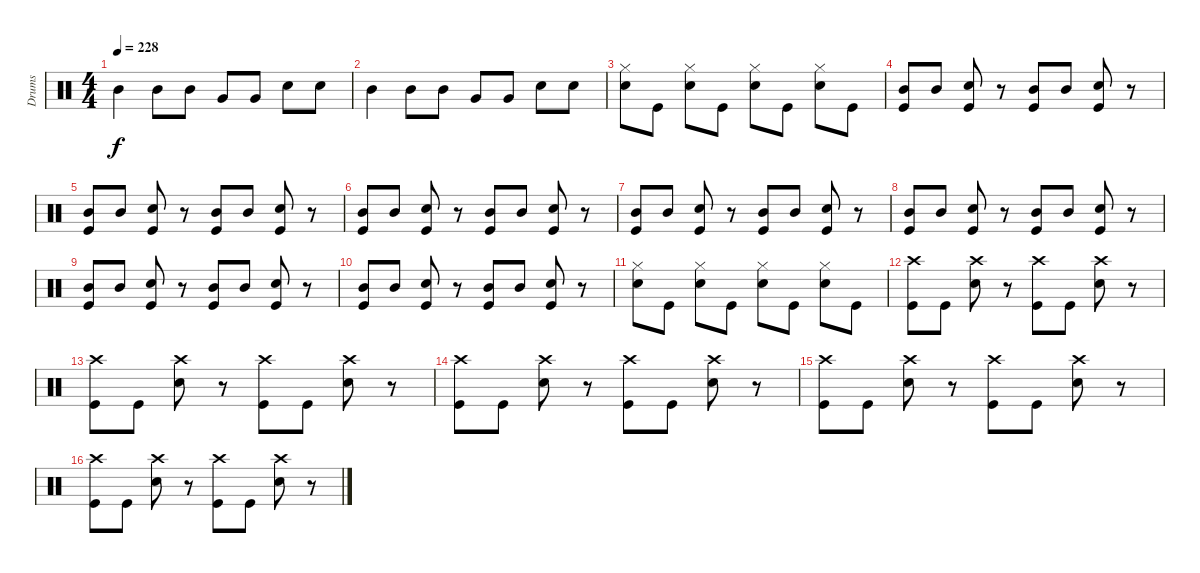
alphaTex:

\track ("Drums" "Drums") {instrument percussion}
\staff {score}
\articulation defaults
\ts (4 4)
\tempo 228
\clef neutral
\ks c "Mid Tom (hit)".4{dy f} "Mid Tom (hit)".8 "Mid Tom (hit)".8 "Very Low Tom (hit)".8 "Very Low Tom (hit)".8 "Electric Snare (hit)".8 "Electric Snare (hit)".8
|
"Mid Tom (hit)".4 "Mid Tom (hit)".8 "Mid Tom (hit)".8 "Very Low Tom (hit)".8 "Very Low Tom (hit)".8 "Electric Snare (hit)".8 "Electric Snare (hit)".8 |
("Hi-Hat (closed)" "Electric Snare (hit)").8 "Kick (hit)".8 ("Hi-Hat (closed)" "Electric Snare (hit)").8 "Kick (hit)".8 ("Hi-Hat (closed)" "Electric Snare (hit)").8 "Kick (hit)".8 ("Hi-Hat (closed)" "Electric Snare (hit)").8 "Kick (hit)".8 |
("Mid Tom (hit)" "Kick (hit)").8 "Mid Tom (hit)".8 ("Electric Snare (hit)" "Kick (hit)").8 r.8 ("Mid Tom (hit)" "Kick (hit)").8 "Mid Tom (hit)".8 ("Electric Snare (hit)" "Kick (hit)").8 r.8 |
("Mid Tom (hit)" "Kick (hit)").8 "Mid Tom (hit)".8 ("Electric Snare (hit)" "Kick (hit)").8 r.8 ("Mid Tom (hit)" "Kick (hit)").8 "Mid Tom (hit)".8 ("Electric Snare (hit)" "Kick (hit)").8 r.8 |
("Mid Tom (hit)" "Kick (hit)").8 "Mid Tom (hit)".8 ("Electric Snare (hit)" "Kick (hit)").8 r.8 ("Mid Tom (hit)" "Kick (hit)").8 "Mid Tom (hit)".8 ("Electric Snare (hit)" "Kick (hit)").8 r.8 |
("Mid Tom (hit)" "Kick (hit)").8 "Mid Tom (hit)".8 ("Electric Snare (hit)" "Kick (hit)").8 r.8 ("Mid Tom (hit)" "Kick (hit)").8 "Mid Tom (hit)".8 ("Electric Snare (hit)" "Kick (hit)").8 r.8 |
("Mid Tom (hit)" "Kick (hit)").8 "Mid Tom (hit)".8 ("Electric Snare (hit)" "Kick (hit)").8 r.8 ("Mid Tom (hit)" "Kick (hit)").8 "Mid Tom (hit)".8 ("Electric Snare (hit)" "Kick (hit)").8 r.8 |
("Mid Tom (hit)" "Kick (hit)").8 "Mid Tom (hit)".8 ("Electric Snare (hit)" "Kick (hit)").8 r.8 ("Mid Tom (hit)" "Kick (hit)").8 "Mid Tom (hit)".8 ("Electric Snare (hit)" "Kick (hit)").8 r.8 |
("Mid Tom (hit)" "Kick (hit)").8 "Mid Tom (hit)".8 ("Electric Snare (hit)" "Kick (hit)").8 r.8 ("Mid Tom (hit)" "Kick (hit)").8 "Mid Tom (hit)".8 ("Electric Snare (hit)" "Kick (hit)").8 r.8 |
("Hi-Hat (closed)" "Electric Snare (hit)").8 "Kick (hit)".8 ("Hi-Hat (closed)" "Electric Snare (hit)").8 "Kick (hit)".8 ("Hi-Hat (closed)" "Electric Snare (hit)").8 "Kick (hit)".8 ("Hi-Hat (closed)" "Electric Snare (hit)").8 "Kick (hit)".8 |
("Crash high (hit)" "Kick (hit)").8 "Kick (hit)".8 ("Crash high (hit)" "Electric Snare (hit)").8 r.8 ("Crash high (hit)" "Kick (hit)").8 "Kick (hit)".8 ("Crash high (hit)" "Electric Snare (hit)").8 r.8 |
("Crash high (hit)" "Kick (hit)").8 "Kick (hit)".8 ("Crash high (hit)" "Electric Snare (hit)").8 r.8 ("Crash high (hit)" "Kick (hit)").8 "Kick (hit)".8 ("Crash high (hit)" "Electric Snare (hit)").8 r.8 |
("Crash high (hit)" "Kick (hit)").8 "Kick (hit)".8 ("Crash high (hit)" "Electric Snare (hit)").8 r.8 ("Crash high (hit)" "Kick (hit)").8 "Kick (hit)".8 ("Crash high (hit)" "Electric Snare (hit)").8 r.8 |
("Crash high (hit)" "Kick (hit)").8 "Kick (hit)".8 ("Crash high (hit)" "Electric Snare (hit)").8 r.8 ("Crash high (hit)" "Kick (hit)").8 "Kick (hit)".8 ("Crash high (hit)" "Electric Snare (hit)").8 r.8 |
("Crash high (hit)" "Kick (hit)").8 "Kick (hit)".8 ("Crash high (hit)" "Electric Snare (hit)").8 r.8 ("Crash high (hit)" "Kick (hit)").8 "Kick (hit)".8 ("Crash high (hit)" "Electric Snare (hit)").8 r.8
